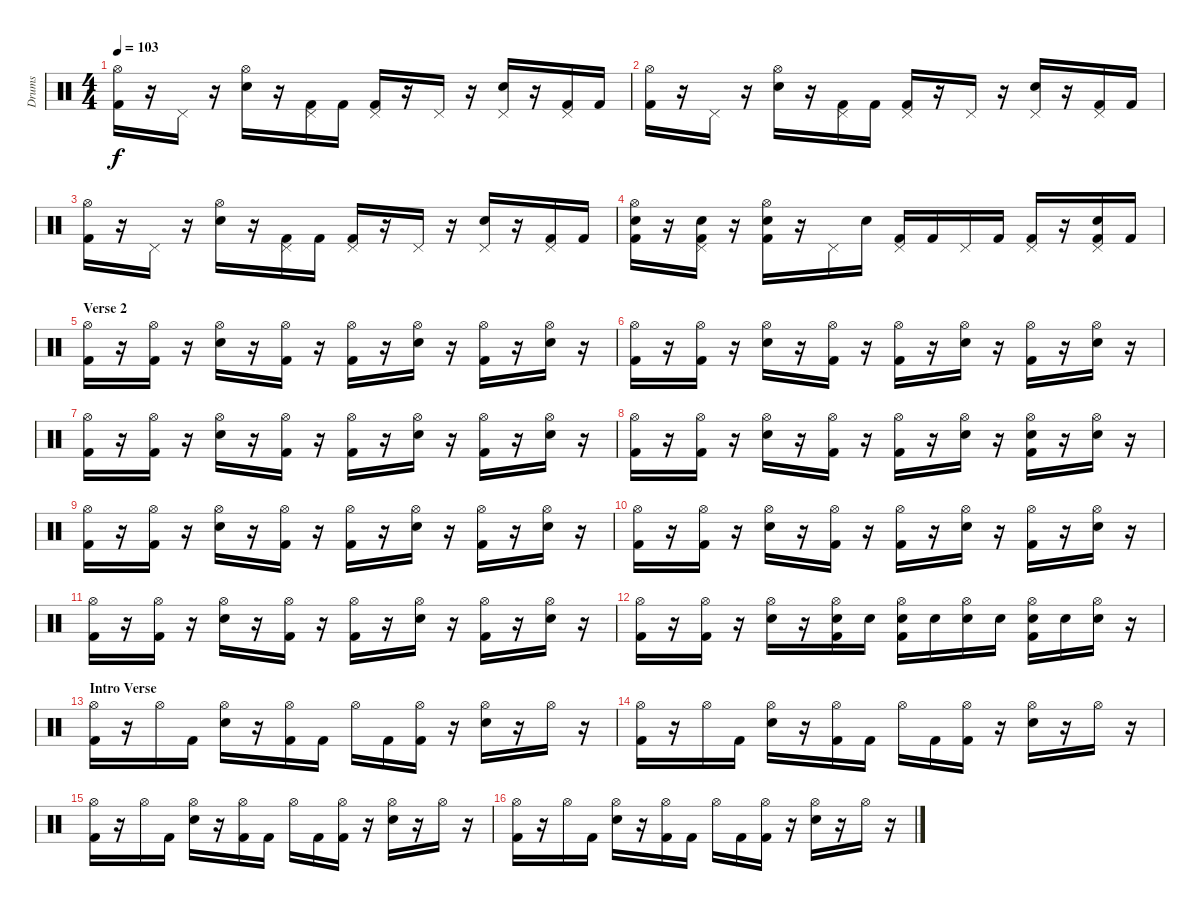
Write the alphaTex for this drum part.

\track ("Drums" "Drums") {instrument percussion}
\staff {score}
\articulation defaults
\ts (4 4)
\tempo 103
\clef neutral
\ks c
("Hi-Hat (open)" "Kick (hit) 2").16{dy f} r.16 "Pedal Hi-Hat (hit)".16 r.16 ("Hi-Hat (open)" "Electric Snare (hit)").16 r.16 ("Pedal Hi-Hat (hit)" "Kick (hit) 2").16 "Kick (hit) 2".16 ("Pedal Hi-Hat (hit)" "Kick (hit) 2").16 r.16 "Pedal Hi-Hat (hit)".16 r.16 ("Pedal Hi-Hat (hit)" "Electric Snare (hit)").16 r.16 ("Pedal Hi-Hat (hit)" "Kick (hit) 2").16 "Kick (hit) 2".16 |
("Hi-Hat (open)" "Kick (hit) 2").16 r.16 "Pedal Hi-Hat (hit)".16 r.16 ("Hi-Hat (open)" "Electric Snare (hit)").16 r.16 ("Pedal Hi-Hat (hit)" "Kick (hit) 2").16 "Kick (hit) 2".16 ("Pedal Hi-Hat (hit)" "Kick (hit) 2").16 r.16 "Pedal Hi-Hat (hit)".16 r.16 ("Pedal Hi-Hat (hit)" "Electric Snare (hit)").16 r.16 ("Pedal Hi-Hat (hit)" "Kick (hit) 2").16 "Kick (hit) 2".16 |
("Hi-Hat (open)" "Kick (hit) 2").16 r.16 "Pedal Hi-Hat (hit)".16 r.16 ("Hi-Hat (open)" "Electric Snare (hit)").16 r.16 ("Pedal Hi-Hat (hit)" "Kick (hit) 2").16 "Kick (hit) 2".16 ("Pedal Hi-Hat (hit)" "Kick (hit) 2").16 r.16 "Pedal Hi-Hat (hit)".16 r.16 ("Pedal Hi-Hat (hit)" "Electric Snare (hit)").16 r.16 ("Pedal Hi-Hat (hit)" "Kick (hit) 2").16 "Kick (hit) 2".16 |
("Hi-Hat (open)" "Electric Snare (hit)" "Kick (hit) 2").16 r.16 ("Pedal Hi-Hat (hit)" "Electric Snare (hit)" "Kick (hit) 2").16 r.16 ("Hi-Hat (open)" "Electric Snare (hit)" "Kick (hit) 2").16 r.16 "Pedal Hi-Hat (hit)".16 "Electric Snare (hit)".16 ("Pedal Hi-Hat (hit)" "Kick (hit) 2").16 "Kick (hit) 2".16 "Pedal Hi-Hat (hit)".16 "Kick (hit) 2".16 ("Pedal Hi-Hat (hit)" "Kick (hit) 2").16 r.16 ("Pedal Hi-Hat (hit)" "Electric Snare (hit)" "Kick (hit) 2").16 "Kick (hit) 2".16 |
\section ("" "Verse 2")
("Hi-Hat (open)" "Kick (hit) 2").16 r.16 ("Hi-Hat (open)" "Kick (hit) 2").16 r.16 ("Hi-Hat (open)" "Electric Snare (hit)").16 r.16 ("Hi-Hat (open)" "Kick (hit) 2").16 r.16 ("Hi-Hat (open)" "Kick (hit) 2").16 r.16 ("Hi-Hat (open)" "Electric Snare (hit)").16 r.16 ("Hi-Hat (open)" "Kick (hit) 2").16 r.16 ("Hi-Hat (open)" "Electric Snare (hit)").16 r.16 |
("Hi-Hat (open)" "Kick (hit) 2").16 r.16 ("Hi-Hat (open)" "Kick (hit) 2").16 r.16 ("Hi-Hat (open)" "Electric Snare (hit)").16 r.16 ("Hi-Hat (open)" "Kick (hit) 2").16 r.16 ("Hi-Hat (open)" "Kick (hit) 2").16 r.16 ("Hi-Hat (open)" "Electric Snare (hit)").16 r.16 ("Hi-Hat (open)" "Kick (hit) 2").16 r.16 ("Hi-Hat (open)" "Electric Snare (hit)").16 r.16 |
("Hi-Hat (open)" "Kick (hit) 2").16 r.16 ("Hi-Hat (open)" "Kick (hit) 2").16 r.16 ("Hi-Hat (open)" "Electric Snare (hit)").16 r.16 ("Hi-Hat (open)" "Kick (hit) 2").16 r.16 ("Hi-Hat (open)" "Kick (hit) 2").16 r.16 ("Hi-Hat (open)" "Electric Snare (hit)").16 r.16 ("Hi-Hat (open)" "Kick (hit) 2").16 r.16 ("Hi-Hat (open)" "Electric Snare (hit)").16 r.16 |
("Hi-Hat (open)" "Kick (hit) 2").16 r.16 ("Hi-Hat (open)" "Kick (hit) 2").16 r.16 ("Hi-Hat (open)" "Electric Snare (hit)").16 r.16 ("Hi-Hat (open)" "Kick (hit) 2").16 r.16 ("Hi-Hat (open)" "Kick (hit) 2").16 r.16 ("Hi-Hat (open)" "Electric Snare (hit)").16 r.16 ("Hi-Hat (open)" "Electric Snare (hit)" "Kick (hit) 2").16 r.16 ("Hi-Hat (open)" "Electric Snare (hit)").16 r.16 |
("Hi-Hat (open)" "Kick (hit) 2").16 r.16 ("Hi-Hat (open)" "Kick (hit) 2").16 r.16 ("Hi-Hat (open)" "Electric Snare (hit)").16 r.16 ("Hi-Hat (open)" "Kick (hit) 2").16 r.16 ("Hi-Hat (open)" "Kick (hit) 2").16 r.16 ("Hi-Hat (open)" "Electric Snare (hit)").16 r.16 ("Hi-Hat (open)" "Kick (hit) 2").16 r.16 ("Hi-Hat (open)" "Electric Snare (hit)").16 r.16 |
("Hi-Hat (open)" "Kick (hit) 2").16 r.16 ("Hi-Hat (open)" "Kick (hit) 2").16 r.16 ("Hi-Hat (open)" "Electric Snare (hit)").16 r.16 ("Hi-Hat (open)" "Kick (hit) 2").16 r.16 ("Hi-Hat (open)" "Kick (hit) 2").16 r.16 ("Hi-Hat (open)" "Electric Snare (hit)").16 r.16 ("Hi-Hat (open)" "Kick (hit) 2").16 r.16 ("Hi-Hat (open)" "Electric Snare (hit)").16 r.16 |
("Hi-Hat (open)" "Kick (hit) 2").16 r.16 ("Hi-Hat (open)" "Kick (hit) 2").16 r.16 ("Hi-Hat (open)" "Electric Snare (hit)").16 r.16 ("Hi-Hat (open)" "Kick (hit) 2").16 r.16 ("Hi-Hat (open)" "Kick (hit) 2").16 r.16 ("Hi-Hat (open)" "Electric Snare (hit)").16 r.16 ("Hi-Hat (open)" "Kick (hit) 2").16 r.16 ("Hi-Hat (open)" "Electric Snare (hit)").16 r.16 |
("Hi-Hat (open)" "Kick (hit) 2").16 r.16 ("Hi-Hat (open)" "Kick (hit) 2").16 r.16 ("Hi-Hat (open)" "Electric Snare (hit)").16 r.16 ("Hi-Hat (open)" "Electric Snare (hit)" "Kick (hit) 2").16 "Electric Snare (hit)".16 ("Hi-Hat (open)" "Snare (hit) 2" "Kick (hit) 2").16 "Snare (hit) 2".16 ("Hi-Hat (open)" "Snare (hit) 2").16 "Snare (hit) 2".16 ("Hi-Hat (open)" "Snare (hit) 2" "Kick (hit) 2").16 "Snare (hit) 2".16 ("Hi-Hat (open)" "Electric Snare (hit)").16 r.16 |
\section ("" "Intro Verse")
("Hi-Hat (open)" "Kick (hit) 2").16{volume 11} r.16 "Hi-Hat (open)".16 "Kick (hit) 2".16 ("Hi-Hat (open)" "Electric Snare (hit)").16 r.16 ("Hi-Hat (open)" "Kick (hit) 2").16 "Kick (hit) 2".16 "Hi-Hat (open)".16 "Kick (hit) 2".16 ("Hi-Hat (open)" "Kick (hit) 2").16 r.16 ("Hi-Hat (open)" "Electric Snare (hit)").16 r.16 "Hi-Hat (open)".16 r.16 |
("Hi-Hat (open)" "Kick (hit) 2").16{volume 11} r.16 "Hi-Hat (open)".16 "Kick (hit) 2".16 ("Hi-Hat (open)" "Electric Snare (hit)").16 r.16 ("Hi-Hat (open)" "Kick (hit) 2").16 "Kick (hit) 2".16 "Hi-Hat (open)".16 "Kick (hit) 2".16 ("Hi-Hat (open)" "Kick (hit) 2").16 r.16 ("Hi-Hat (open)" "Electric Snare (hit)").16 r.16 "Hi-Hat (open)".16 r.16 |
("Hi-Hat (open)" "Kick (hit) 2").16{volume 11} r.16 "Hi-Hat (open)".16 "Kick (hit) 2".16 ("Hi-Hat (open)" "Electric Snare (hit)").16 r.16 ("Hi-Hat (open)" "Kick (hit) 2").16 "Kick (hit) 2".16 "Hi-Hat (open)".16 "Kick (hit) 2".16 ("Hi-Hat (open)" "Kick (hit) 2").16 r.16 ("Hi-Hat (open)" "Electric Snare (hit)").16 r.16 "Hi-Hat (open)".16 r.16 |
("Hi-Hat (open)" "Kick (hit) 2").16{volume 11} r.16 "Hi-Hat (open)".16 "Kick (hit) 2".16 ("Hi-Hat (open)" "Electric Snare (hit)").16 r.16 ("Hi-Hat (open)" "Kick (hit) 2").16 "Kick (hit) 2".16 "Hi-Hat (open)".16 "Kick (hit) 2".16 ("Hi-Hat (open)" "Kick (hit) 2").16 r.16 ("Hi-Hat (open)" "Electric Snare (hit)").16 r.16 "Hi-Hat (open)".16 r.16
